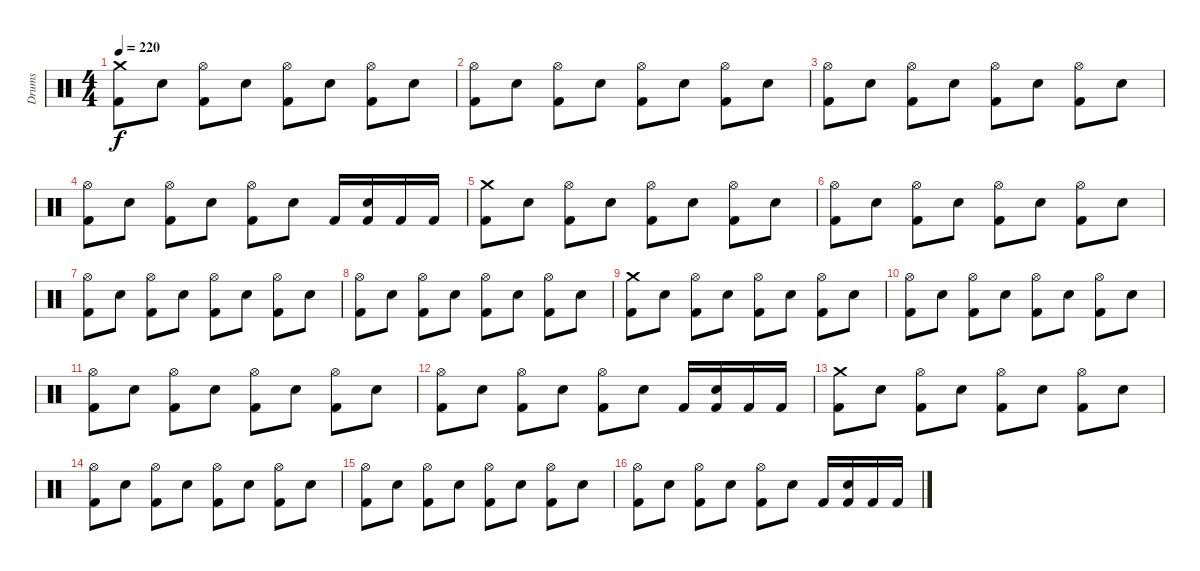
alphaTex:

\track ("Drums" "Drums") {instrument percussion}
\staff {score}
\articulation defaults
\ts (4 4)
\tempo 220
\clef neutral
\ks c
("Crash medium (hit)" "Kick (hit) 2").8{dy f} "Electric Snare (hit)".8 ("Hi-Hat (open)" "Kick (hit) 2").8 "Electric Snare (hit)".8 ("Hi-Hat (open)" "Kick (hit) 2").8 "Electric Snare (hit)".8 ("Hi-Hat (open)" "Kick (hit) 2").8 "Electric Snare (hit)".8 |
("Hi-Hat (open)" "Kick (hit) 2").8 "Electric Snare (hit)".8 ("Hi-Hat (open)" "Kick (hit) 2").8 "Electric Snare (hit)".8 ("Hi-Hat (open)" "Kick (hit) 2").8 "Electric Snare (hit)".8 ("Hi-Hat (open)" "Kick (hit) 2").8 "Electric Snare (hit)".8 |
("Hi-Hat (open)" "Kick (hit) 2").8 "Electric Snare (hit)".8 ("Hi-Hat (open)" "Kick (hit) 2").8 "Electric Snare (hit)".8 ("Hi-Hat (open)" "Kick (hit) 2").8 "Electric Snare (hit)".8 ("Hi-Hat (open)" "Kick (hit) 2").8 "Electric Snare (hit)".8 |
("Hi-Hat (open)" "Kick (hit) 2").8 "Electric Snare (hit)".8 ("Hi-Hat (open)" "Kick (hit) 2").8 "Electric Snare (hit)".8 ("Hi-Hat (open)" "Kick (hit) 2").8 "Electric Snare (hit)".8 "Kick (hit) 2".16 ("Kick (hit) 2" "Electric Snare (hit)").16 "Kick (hit) 2".16 "Kick (hit) 2".16 |
("Crash medium (hit)" "Kick (hit) 2").8 "Electric Snare (hit)".8 ("Hi-Hat (open)" "Kick (hit) 2").8 "Electric Snare (hit)".8 ("Hi-Hat (open)" "Kick (hit) 2").8 "Electric Snare (hit)".8 ("Hi-Hat (open)" "Kick (hit) 2").8 "Electric Snare (hit)".8 |
("Hi-Hat (open)" "Kick (hit) 2").8 "Electric Snare (hit)".8 ("Hi-Hat (open)" "Kick (hit) 2").8 "Electric Snare (hit)".8 ("Hi-Hat (open)" "Kick (hit) 2").8 "Electric Snare (hit)".8 ("Hi-Hat (open)" "Kick (hit) 2").8 "Electric Snare (hit)".8 |
("Hi-Hat (open)" "Kick (hit) 2").8 "Electric Snare (hit)".8 ("Hi-Hat (open)" "Kick (hit) 2").8 "Electric Snare (hit)".8 ("Hi-Hat (open)" "Kick (hit) 2").8 "Electric Snare (hit)".8 ("Hi-Hat (open)" "Kick (hit) 2").8 "Electric Snare (hit)".8 |
("Hi-Hat (open)" "Kick (hit) 2").8 "Electric Snare (hit)".8 ("Hi-Hat (open)" "Kick (hit) 2").8 "Electric Snare (hit)".8 ("Hi-Hat (open)" "Kick (hit) 2").8 "Electric Snare (hit)".8 ("Hi-Hat (open)" "Kick (hit) 2").8 "Electric Snare (hit)".8 |
("Crash medium (hit)" "Kick (hit) 2").8 "Electric Snare (hit)".8 ("Hi-Hat (open)" "Kick (hit) 2").8 "Electric Snare (hit)".8 ("Hi-Hat (open)" "Kick (hit) 2").8 "Electric Snare (hit)".8 ("Hi-Hat (open)" "Kick (hit) 2").8 "Electric Snare (hit)".8 |
("Hi-Hat (open)" "Kick (hit) 2").8 "Electric Snare (hit)".8 ("Hi-Hat (open)" "Kick (hit) 2").8 "Electric Snare (hit)".8 ("Hi-Hat (open)" "Kick (hit) 2").8 "Electric Snare (hit)".8 ("Hi-Hat (open)" "Kick (hit) 2").8 "Electric Snare (hit)".8 |
("Hi-Hat (open)" "Kick (hit) 2").8 "Electric Snare (hit)".8 ("Hi-Hat (open)" "Kick (hit) 2").8 "Electric Snare (hit)".8 ("Hi-Hat (open)" "Kick (hit) 2").8 "Electric Snare (hit)".8 ("Hi-Hat (open)" "Kick (hit) 2").8 "Electric Snare (hit)".8 |
("Hi-Hat (open)" "Kick (hit) 2").8 "Electric Snare (hit)".8 ("Hi-Hat (open)" "Kick (hit) 2").8 "Electric Snare (hit)".8 ("Hi-Hat (open)" "Kick (hit) 2").8 "Electric Snare (hit)".8 "Kick (hit) 2".16 ("Kick (hit) 2" "Electric Snare (hit)").16 "Kick (hit) 2".16 "Kick (hit) 2".16 |
("Crash medium (hit)" "Kick (hit) 2").8 "Electric Snare (hit)".8 ("Hi-Hat (open)" "Kick (hit) 2").8 "Electric Snare (hit)".8 ("Hi-Hat (open)" "Kick (hit) 2").8 "Electric Snare (hit)".8 ("Hi-Hat (open)" "Kick (hit) 2").8 "Electric Snare (hit)".8 |
("Hi-Hat (open)" "Kick (hit) 2").8 "Electric Snare (hit)".8 ("Hi-Hat (open)" "Kick (hit) 2").8 "Electric Snare (hit)".8 ("Hi-Hat (open)" "Kick (hit) 2").8 "Electric Snare (hit)".8 ("Hi-Hat (open)" "Kick (hit) 2").8 "Electric Snare (hit)".8 |
("Hi-Hat (open)" "Kick (hit) 2").8 "Electric Snare (hit)".8 ("Hi-Hat (open)" "Kick (hit) 2").8 "Electric Snare (hit)".8 ("Hi-Hat (open)" "Kick (hit) 2").8 "Electric Snare (hit)".8 ("Hi-Hat (open)" "Kick (hit) 2").8 "Electric Snare (hit)".8 |
("Hi-Hat (open)" "Kick (hit) 2").8 "Electric Snare (hit)".8 ("Hi-Hat (open)" "Kick (hit) 2").8 "Electric Snare (hit)".8 ("Hi-Hat (open)" "Kick (hit) 2").8 "Electric Snare (hit)".8 "Kick (hit) 2".16 ("Kick (hit) 2" "Electric Snare (hit)").16 "Kick (hit) 2".16 "Kick (hit) 2".16
